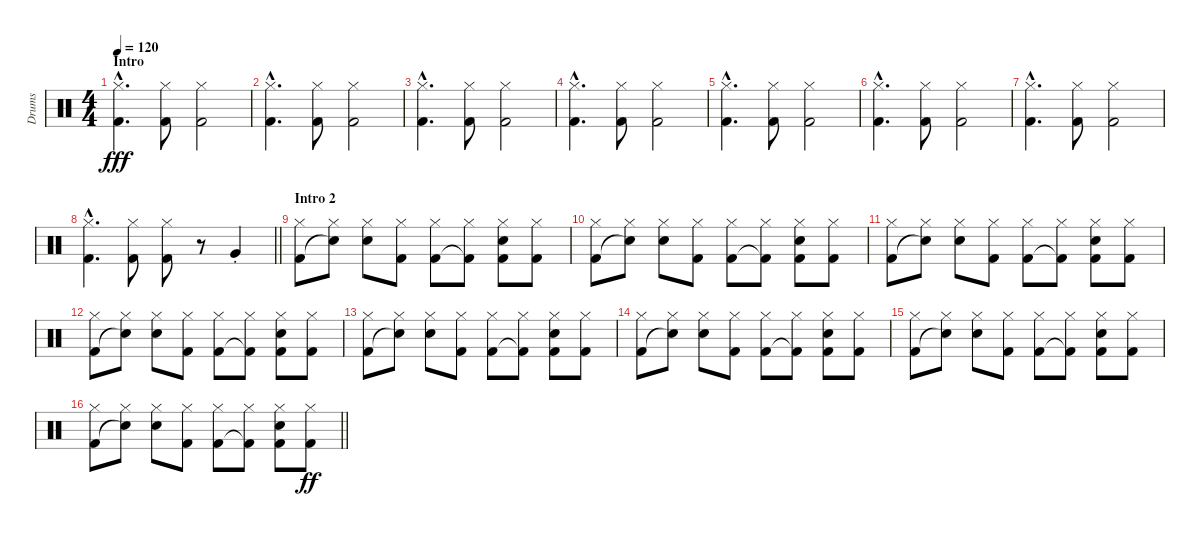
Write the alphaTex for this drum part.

\track ("Drums" "Drums") {instrument percussion}
\staff {score}
\articulation defaults
\ts (4 4)
\section ("" "Intro")
\tempo 120
\clef neutral
\ks c
("Hi-Hat (closed)"{hac} "Kick (hit) 2"{hac}).4{d dy fff} ("Hi-Hat (closed)" "Kick (hit) 2").8 ("Hi-Hat (closed)" "Kick (hit) 2").2 |
("Hi-Hat (closed)"{hac} "Kick (hit) 2"{hac}).4{d} ("Hi-Hat (closed)" "Kick (hit) 2").8 ("Hi-Hat (closed)" "Kick (hit) 2").2 |
("Hi-Hat (closed)"{hac} "Kick (hit) 2"{hac}).4{d} ("Hi-Hat (closed)" "Kick (hit) 2").8 ("Hi-Hat (closed)" "Kick (hit) 2").2 |
("Hi-Hat (closed)"{hac} "Kick (hit) 2"{hac}).4{d} ("Hi-Hat (closed)" "Kick (hit) 2").8 ("Hi-Hat (closed)" "Kick (hit) 2").2 |
("Hi-Hat (closed)"{hac} "Kick (hit) 2"{hac}).4{d} ("Hi-Hat (closed)" "Kick (hit) 2").8 ("Hi-Hat (closed)" "Kick (hit) 2").2 |
("Hi-Hat (closed)"{hac} "Kick (hit) 2"{hac}).4{d} ("Hi-Hat (closed)" "Kick (hit) 2").8 ("Hi-Hat (closed)" "Kick (hit) 2").2 |
("Hi-Hat (closed)"{hac} "Kick (hit) 2"{hac}).4{d} ("Hi-Hat (closed)" "Kick (hit) 2").8 ("Hi-Hat (closed)" "Kick (hit) 2").2 |
\barLineRight lightlight
("Hi-Hat (closed)"{hac} "Kick (hit) 2"{hac}).4{d} ("Hi-Hat (closed)" "Kick (hit) 2").8 ("Hi-Hat (closed)" "Kick (hit) 2").8 r.8 "Very Low Tom (hit)"{st}.4 |
\section ("" "Intro 2")
("Hi-Hat (closed)" "Kick (hit) 2").8 ("Hi-Hat (closed)" "Snare (hit)"{t}).8 ("Hi-Hat (closed)" "Snare (hit) 2").8 ("Hi-Hat (closed)" "Kick (hit) 2").8 ("Hi-Hat (closed)" "Kick (hit) 2").8 ("Hi-Hat (closed)" "Kick (hit) 2"{t}).8 ("Hi-Hat (closed)" "Snare (hit) 2" "Kick (hit) 2").8 ("Hi-Hat (closed)" "Kick (hit) 2").8 |
("Hi-Hat (closed)" "Kick (hit) 2").8 ("Hi-Hat (closed)" "Snare (hit)"{t}).8 ("Hi-Hat (closed)" "Snare (hit) 2").8 ("Hi-Hat (closed)" "Kick (hit) 2").8 ("Hi-Hat (closed)" "Kick (hit) 2").8 ("Hi-Hat (closed)" "Kick (hit) 2"{t}).8 ("Hi-Hat (closed)" "Snare (hit) 2" "Kick (hit) 2").8 ("Hi-Hat (closed)" "Kick (hit) 2").8 |
("Hi-Hat (closed)" "Kick (hit) 2").8 ("Hi-Hat (closed)" "Snare (hit)"{t}).8 ("Hi-Hat (closed)" "Snare (hit) 2").8 ("Hi-Hat (closed)" "Kick (hit) 2").8 ("Hi-Hat (closed)" "Kick (hit) 2").8 ("Hi-Hat (closed)" "Kick (hit) 2"{t}).8 ("Hi-Hat (closed)" "Snare (hit) 2" "Kick (hit) 2").8 ("Hi-Hat (closed)" "Kick (hit) 2").8 |
("Hi-Hat (closed)" "Kick (hit) 2").8 ("Hi-Hat (closed)" "Snare (hit)"{t}).8 ("Hi-Hat (closed)" "Snare (hit) 2").8 ("Hi-Hat (closed)" "Kick (hit) 2").8 ("Hi-Hat (closed)" "Kick (hit) 2").8 ("Hi-Hat (closed)" "Kick (hit) 2"{t}).8 ("Hi-Hat (closed)" "Snare (hit) 2" "Kick (hit) 2").8 ("Hi-Hat (closed)" "Kick (hit) 2").8 |
("Hi-Hat (closed)" "Kick (hit) 2").8 ("Hi-Hat (closed)" "Snare (hit)"{t}).8 ("Hi-Hat (closed)" "Snare (hit) 2").8 ("Hi-Hat (closed)" "Kick (hit) 2").8 ("Hi-Hat (closed)" "Kick (hit) 2").8 ("Hi-Hat (closed)" "Kick (hit) 2"{t}).8 ("Hi-Hat (closed)" "Snare (hit) 2" "Kick (hit) 2").8 ("Hi-Hat (closed)" "Kick (hit) 2").8 |
("Hi-Hat (closed)" "Kick (hit) 2").8 ("Hi-Hat (closed)" "Snare (hit)"{t}).8 ("Hi-Hat (closed)" "Snare (hit) 2").8 ("Hi-Hat (closed)" "Kick (hit) 2").8 ("Hi-Hat (closed)" "Kick (hit) 2").8 ("Hi-Hat (closed)" "Kick (hit) 2"{t}).8 ("Hi-Hat (closed)" "Snare (hit) 2" "Kick (hit) 2").8 ("Hi-Hat (closed)" "Kick (hit) 2").8 |
("Hi-Hat (closed)" "Kick (hit) 2").8 ("Hi-Hat (closed)" "Snare (hit)"{t}).8 ("Hi-Hat (closed)" "Snare (hit) 2").8 ("Hi-Hat (closed)" "Kick (hit) 2").8 ("Hi-Hat (closed)" "Kick (hit) 2").8 ("Hi-Hat (closed)" "Kick (hit) 2"{t}).8 ("Hi-Hat (closed)" "Snare (hit) 2" "Kick (hit) 2").8 ("Hi-Hat (closed)" "Kick (hit) 2").8 |
\barLineRight lightlight
("Hi-Hat (closed)" "Kick (hit) 2").8 ("Hi-Hat (closed)" "Snare (hit)"{t}).8 ("Hi-Hat (closed)" "Snare (hit) 2").8 ("Hi-Hat (closed)" "Kick (hit) 2").8 ("Hi-Hat (closed)" "Kick (hit) 2").8 ("Hi-Hat (closed)" "Kick (hit) 2"{t}).8 ("Hi-Hat (closed)" "Snare (hit) 2" "Kick (hit) 2").8 ("Hi-Hat (closed)" "Kick (hit) 2").8{dy ff}
